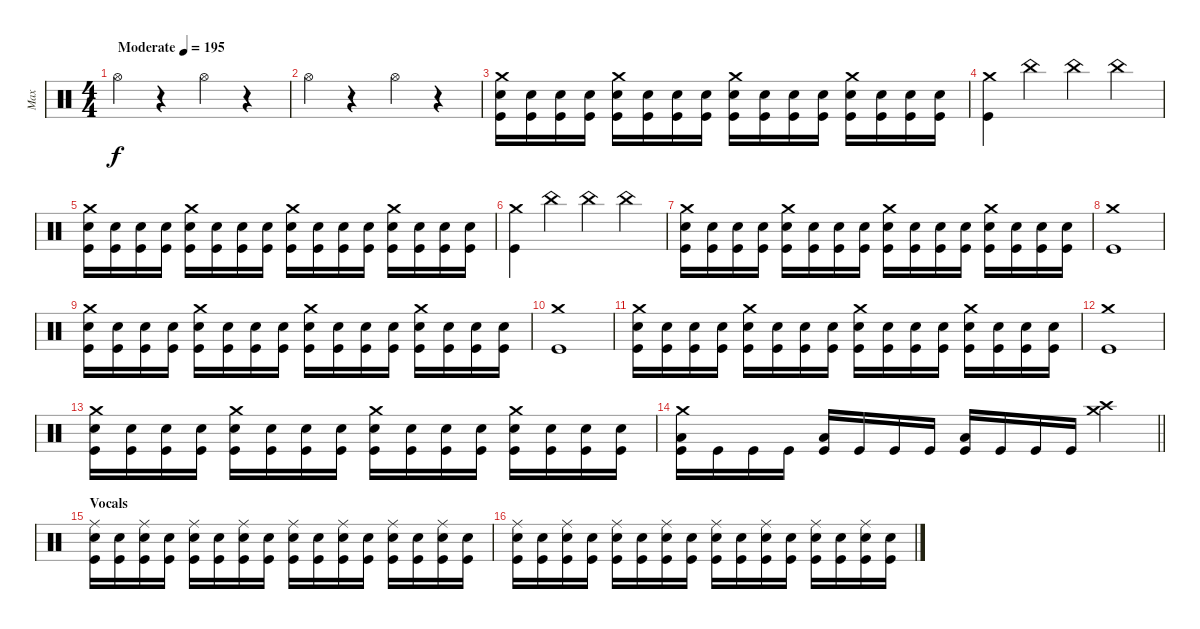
\track ("Max" "Max") {instrument percussion}
\staff {score}
\articulation defaults
\ts (4 4)
\tempo (195 "Moderate")
\clef neutral
\ks c "Hi-Hat (open)".4{dy f}
r.4 "Hi-Hat (open)".4 r.4 |
"Hi-Hat (open)".4 r.4 "Hi-Hat (open)".4 r.4 |
("Crash medium (hit)" "Electric Snare (hit)" "Kick (hit)").16 ("Electric Snare (hit)" "Kick (hit)").16 ("Electric Snare (hit)" "Kick (hit)").16 ("Electric Snare (hit)" "Kick (hit)").16 ("Crash medium (hit)" "Electric Snare (hit)" "Kick (hit)").16 ("Electric Snare (hit)" "Kick (hit)").16 ("Electric Snare (hit)" "Kick (hit)").16 ("Electric Snare (hit)" "Kick (hit)").16 ("Crash medium (hit)" "Electric Snare (hit)" "Kick (hit)").16 ("Electric Snare (hit)" "Kick (hit)").16 ("Electric Snare (hit)" "Kick (hit)").16 ("Electric Snare (hit)" "Kick (hit)").16 ("Crash medium (hit)" "Electric Snare (hit)" "Kick (hit)").16 ("Electric Snare (hit)" "Kick (hit)").16 ("Electric Snare (hit)" "Kick (hit)").16 ("Electric Snare (hit)" "Kick (hit)").16 |
("Crash medium (hit)" "Kick (hit)").4 "China (hit)".4 "China (hit)".4 "China (hit)".4 |
("Crash medium (hit)" "Electric Snare (hit)" "Kick (hit)").16 ("Electric Snare (hit)" "Kick (hit)").16 ("Electric Snare (hit)" "Kick (hit)").16 ("Electric Snare (hit)" "Kick (hit)").16 ("Crash medium (hit)" "Electric Snare (hit)" "Kick (hit)").16 ("Electric Snare (hit)" "Kick (hit)").16 ("Electric Snare (hit)" "Kick (hit)").16 ("Electric Snare (hit)" "Kick (hit)").16 ("Crash medium (hit)" "Electric Snare (hit)" "Kick (hit)").16 ("Electric Snare (hit)" "Kick (hit)").16 ("Electric Snare (hit)" "Kick (hit)").16 ("Electric Snare (hit)" "Kick (hit)").16 ("Crash medium (hit)" "Electric Snare (hit)" "Kick (hit)").16 ("Electric Snare (hit)" "Kick (hit)").16 ("Electric Snare (hit)" "Kick (hit)").16 ("Electric Snare (hit)" "Kick (hit)").16 |
("Crash medium (hit)" "Kick (hit)").4 "China (hit)".4 "China (hit)".4 "China (hit)".4 |
("Crash medium (hit)" "Electric Snare (hit)" "Kick (hit)").16 ("Electric Snare (hit)" "Kick (hit)").16 ("Electric Snare (hit)" "Kick (hit)").16 ("Electric Snare (hit)" "Kick (hit)").16 ("Crash medium (hit)" "Electric Snare (hit)" "Kick (hit)").16 ("Electric Snare (hit)" "Kick (hit)").16 ("Electric Snare (hit)" "Kick (hit)").16 ("Electric Snare (hit)" "Kick (hit)").16 ("Crash medium (hit)" "Electric Snare (hit)" "Kick (hit)").16 ("Electric Snare (hit)" "Kick (hit)").16 ("Electric Snare (hit)" "Kick (hit)").16 ("Electric Snare (hit)" "Kick (hit)").16 ("Crash medium (hit)" "Electric Snare (hit)" "Kick (hit)").16 ("Electric Snare (hit)" "Kick (hit)").16 ("Electric Snare (hit)" "Kick (hit)").16 ("Electric Snare (hit)" "Kick (hit)").16 |
("Crash medium (hit)" "Kick (hit)").1 |
("Crash medium (hit)" "Electric Snare (hit)" "Kick (hit)").16 ("Electric Snare (hit)" "Kick (hit)").16 ("Electric Snare (hit)" "Kick (hit)").16 ("Electric Snare (hit)" "Kick (hit)").16 ("Crash medium (hit)" "Electric Snare (hit)" "Kick (hit)").16 ("Electric Snare (hit)" "Kick (hit)").16 ("Electric Snare (hit)" "Kick (hit)").16 ("Electric Snare (hit)" "Kick (hit)").16 ("Crash medium (hit)" "Electric Snare (hit)" "Kick (hit)").16 ("Electric Snare (hit)" "Kick (hit)").16 ("Electric Snare (hit)" "Kick (hit)").16 ("Electric Snare (hit)" "Kick (hit)").16 ("Crash medium (hit)" "Electric Snare (hit)" "Kick (hit)").16 ("Electric Snare (hit)" "Kick (hit)").16 ("Electric Snare (hit)" "Kick (hit)").16 ("Electric Snare (hit)" "Kick (hit)").16 |
("Crash medium (hit)" "Kick (hit)").1 |
("Crash medium (hit)" "Electric Snare (hit)" "Kick (hit)").16 ("Electric Snare (hit)" "Kick (hit)").16 ("Electric Snare (hit)" "Kick (hit)").16 ("Electric Snare (hit)" "Kick (hit)").16 ("Crash medium (hit)" "Electric Snare (hit)" "Kick (hit)").16 ("Electric Snare (hit)" "Kick (hit)").16 ("Electric Snare (hit)" "Kick (hit)").16 ("Electric Snare (hit)" "Kick (hit)").16 ("Crash medium (hit)" "Electric Snare (hit)" "Kick (hit)").16 ("Electric Snare (hit)" "Kick (hit)").16 ("Electric Snare (hit)" "Kick (hit)").16 ("Electric Snare (hit)" "Kick (hit)").16 ("Crash medium (hit)" "Electric Snare (hit)" "Kick (hit)").16 ("Electric Snare (hit)" "Kick (hit)").16 ("Electric Snare (hit)" "Kick (hit)").16 ("Electric Snare (hit)" "Kick (hit)").16 |
("Crash medium (hit)" "Kick (hit)").1 |
("Crash medium (hit)" "Electric Snare (hit)" "Kick (hit)").16 ("Electric Snare (hit)" "Kick (hit)").16 ("Electric Snare (hit)" "Kick (hit)").16 ("Electric Snare (hit)" "Kick (hit)").16 ("Crash medium (hit)" "Electric Snare (hit)" "Kick (hit)").16 ("Electric Snare (hit)" "Kick (hit)").16 ("Electric Snare (hit)" "Kick (hit)").16 ("Electric Snare (hit)" "Kick (hit)").16 ("Crash medium (hit)" "Electric Snare (hit)" "Kick (hit)").16 ("Electric Snare (hit)" "Kick (hit)").16 ("Electric Snare (hit)" "Kick (hit)").16 ("Electric Snare (hit)" "Kick (hit)").16 ("Crash medium (hit)" "Electric Snare (hit)" "Kick (hit)").16 ("Electric Snare (hit)" "Kick (hit)").16 ("Electric Snare (hit)" "Kick (hit)").16 ("Electric Snare (hit)" "Kick (hit)").16 |
\barLineRight lightlight
("Crash medium (hit)" "Low Tom (hit)" "Kick (hit)").16 "Kick (hit)".16 "Kick (hit)".16 "Kick (hit)".16 ("Low Tom (hit)" "Kick (hit)").16 "Kick (hit)".16 "Kick (hit)".16 "Kick (hit)".16 ("Low Tom (hit)" "Kick (hit)").16 "Kick (hit)".16 "Kick (hit)".16 "Kick (hit)".16 ("Crash medium (hit)" "Crash high (hit)").4 |
\section ("" "Vocals")
("Ride (middle)" "Electric Snare (hit)" "Kick (hit)").16 ("Electric Snare (hit)" "Kick (hit)").16 ("Ride (middle)" "Electric Snare (hit)" "Kick (hit)").16 ("Electric Snare (hit)" "Kick (hit)").16 ("Ride (middle)" "Electric Snare (hit)" "Kick (hit)").16 ("Electric Snare (hit)" "Kick (hit)").16 ("Ride (middle)" "Electric Snare (hit)" "Kick (hit)").16 ("Electric Snare (hit)" "Kick (hit)").16 ("Ride (middle)" "Electric Snare (hit)" "Kick (hit)").16 ("Electric Snare (hit)" "Kick (hit)").16 ("Ride (middle)" "Electric Snare (hit)" "Kick (hit)").16 ("Electric Snare (hit)" "Kick (hit)").16 ("Ride (middle)" "Electric Snare (hit)" "Kick (hit)").16 ("Electric Snare (hit)" "Kick (hit)").16 ("Ride (middle)" "Electric Snare (hit)" "Kick (hit)").16 ("Electric Snare (hit)" "Kick (hit)").16 |
("Ride (middle)" "Electric Snare (hit)" "Kick (hit)").16 ("Electric Snare (hit)" "Kick (hit)").16 ("Ride (middle)" "Electric Snare (hit)" "Kick (hit)").16 ("Electric Snare (hit)" "Kick (hit)").16 ("Ride (middle)" "Electric Snare (hit)" "Kick (hit)").16 ("Electric Snare (hit)" "Kick (hit)").16 ("Ride (middle)" "Electric Snare (hit)" "Kick (hit)").16 ("Electric Snare (hit)" "Kick (hit)").16 ("Ride (middle)" "Electric Snare (hit)" "Kick (hit)").16 ("Electric Snare (hit)" "Kick (hit)").16 ("Ride (middle)" "Electric Snare (hit)" "Kick (hit)").16 ("Electric Snare (hit)" "Kick (hit)").16 ("Ride (middle)" "Electric Snare (hit)" "Kick (hit)").16 ("Electric Snare (hit)" "Kick (hit)").16 ("Ride (middle)" "Electric Snare (hit)" "Kick (hit)").16 ("Electric Snare (hit)" "Kick (hit)").16
